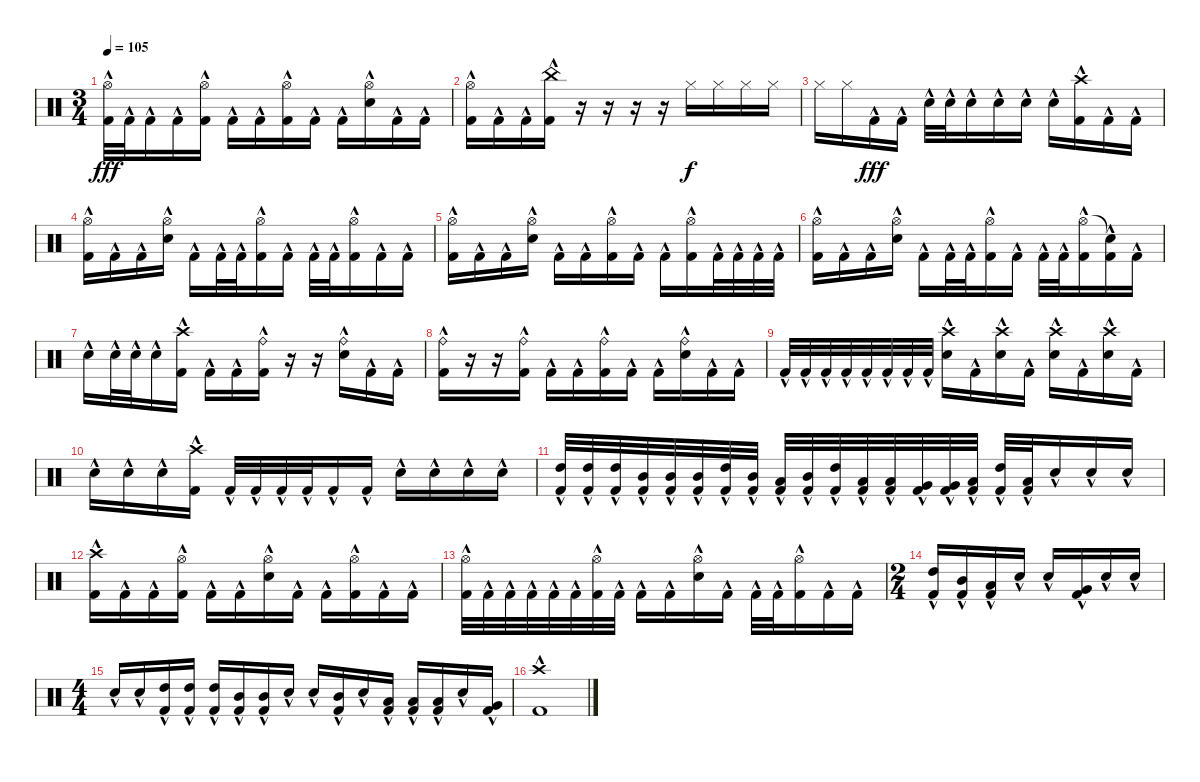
\track "" {instrument percussion}
\staff {score}
\articulation defaults
\ts (3 4)
\tempo 105
\clef neutral
\ks c
("Hi-Hat (open)" "Kick (hit) 2"{hac}).32{dy fff} "Kick (hit) 2"{hac}.32 "Kick (hit) 2"{hac}.16 "Kick (hit) 2"{hac}.16 ("Hi-Hat (open)" "Kick (hit) 2"{hac}).16 "Kick (hit) 2"{hac}.16 "Kick (hit) 2"{hac}.16 ("Hi-Hat (open)" "Kick (hit) 2"{hac}).16 "Kick (hit) 2"{hac}.16 "Kick (hit) 2"{hac}.16 ("Hi-Hat (open)" "Electric Snare (hit)"{hac}).16 "Kick (hit) 2"{hac}.16 "Kick (hit) 2"{hac}.16 |
("Hi-Hat (open)" "Kick (hit) 2"{hac}).16 "Kick (hit) 2"{hac}.16 "Kick (hit) 2"{hac}.16 ("China (hit)" "Kick (hit) 2"{hac}).16 r.16 r.16 r.16 r.16 "Hi-Hat (closed)".16{dy f} "Hi-Hat (closed)".16 "Hi-Hat (closed)".16 "Hi-Hat (closed)".16 |
"Hi-Hat (closed)".16 "Hi-Hat (closed)".16 "Kick (hit) 2"{hac}.16{dy fff} "Kick (hit) 2"{hac}.16 "Electric Snare (hit)"{hac}.32 "Electric Snare (hit)"{hac}.32 "Electric Snare (hit)"{hac}.16 "Electric Snare (hit)"{hac}.16 "Electric Snare (hit)"{hac}.16 "Electric Snare (hit)"{hac}.16 ("Crash high (hit)" "Kick (hit) 2"{hac}).16 "Kick (hit) 2"{hac}.16 "Kick (hit) 2"{hac}.16 |
("Hi-Hat (open)" "Kick (hit) 2"{hac}).16 "Kick (hit) 2"{hac}.16 "Kick (hit) 2"{hac}.16 ("Hi-Hat (open)" "Electric Snare (hit)"{hac}).16 "Kick (hit) 2"{hac}.16 "Kick (hit) 2"{hac}.32 "Kick (hit) 2"{hac}.32 ("Hi-Hat (open)" "Kick (hit) 2"{hac}).16 "Kick (hit) 2"{hac}.16 "Kick (hit) 2"{hac}.32 "Kick (hit) 2"{hac}.32 ("Hi-Hat (open)" "Kick (hit) 2"{hac}).16 "Kick (hit) 2"{hac}.16 "Kick (hit) 2"{hac}.16 |
("Hi-Hat (open)" "Kick (hit) 2"{hac}).16 "Kick (hit) 2"{hac}.16 "Kick (hit) 2"{hac}.16 ("Hi-Hat (open)" "Electric Snare (hit)"{hac}).16 "Kick (hit) 2"{hac}.16 "Kick (hit) 2"{hac}.16 ("Hi-Hat (open)" "Kick (hit) 2"{hac}).16 "Kick (hit) 2"{hac}.16 "Kick (hit) 2"{hac}.16 ("Hi-Hat (open)" "Kick (hit) 2"{hac}).16 "Kick (hit) 2"{hac}.32 "Kick (hit) 2"{hac}.32 "Kick (hit) 2"{hac}.32 "Kick (hit) 2"{hac}.32 |
("Hi-Hat (open)" "Kick (hit) 2"{hac}).16 "Kick (hit) 2"{hac}.16 "Kick (hit) 2"{hac}.16 ("Hi-Hat (open)" "Electric Snare (hit)"{hac}).16 "Kick (hit) 2"{hac}.16 "Kick (hit) 2"{hac}.32 "Kick (hit) 2"{hac}.32 ("Hi-Hat (open)" "Kick (hit) 2"{hac}).16 "Kick (hit) 2"{hac}.16 "Kick (hit) 2"{hac}.32 "Kick (hit) 2"{hac}.32 ("Hi-Hat (open)" "Kick (hit) 2"{hac}).16 ("Snare (hit)"{t} "Kick (hit) 2"{hac}).16 "Kick (hit) 2"{hac}.16 |
"Electric Snare (hit)"{hac}.16 "Electric Snare (hit)"{hac}.32 "Electric Snare (hit)"{hac}.32 "Electric Snare (hit)"{hac}.16 ("Crash high (hit)" "Kick (hit) 2"{hac}).16 "Kick (hit) 2"{hac}.16 "Kick (hit) 2"{hac}.16 ("Ride (bell)" "Kick (hit) 2"{hac}).16 r.16 r.16 ("Ride (bell)" "Electric Snare (hit)"{hac}).16 "Kick (hit) 2"{hac}.16 "Kick (hit) 2"{hac}.16 |
("Kick (hit) 2"{hac} "Ride (bell)").16 r.16 r.16 ("Kick (hit) 2"{hac} "Ride (bell)").16 "Kick (hit) 2"{hac}.16 "Kick (hit) 2"{hac}.16 ("Kick (hit) 2"{hac} "Ride (bell)").16 "Kick (hit) 2"{hac}.16 "Kick (hit) 2"{hac}.16 ("Electric Snare (hit)"{hac} "Ride (bell)").16 "Kick (hit) 2"{hac}.16 "Kick (hit) 2"{hac}.16 |
"Kick (hit) 2"{hac}.32 "Kick (hit) 2"{hac}.32 "Kick (hit) 2"{hac}.32 "Kick (hit) 2"{hac}.32 "Kick (hit) 2"{hac}.32 "Kick (hit) 2"{hac}.32 "Kick (hit) 2"{hac}.32 "Kick (hit) 2"{hac}.32 ("Crash high (hit)" "Electric Snare (hit)"{hac}).16 "Kick (hit) 2"{hac}.16 ("Crash high (hit)" "Electric Snare (hit)"{hac}).16 "Kick (hit) 2"{hac}.16 ("Crash high (hit)" "Electric Snare (hit)"{hac}).16 "Kick (hit) 2"{hac}.16 ("Crash high (hit)" "Electric Snare (hit)"{hac}).16 "Kick (hit) 2"{hac}.16 |
"Electric Snare (hit)"{hac}.16 "Electric Snare (hit)"{hac}.16 "Electric Snare (hit)"{hac}.16 ("Crash high (hit)" "Kick (hit) 2"{hac}).16 "Kick (hit) 2"{hac}.32 "Kick (hit) 2"{hac}.32 "Kick (hit) 2"{hac}.32 "Kick (hit) 2"{hac}.32 "Kick (hit) 2"{hac}.16 "Kick (hit) 2"{hac}.16 "Electric Snare (hit)"{hac}.16 "Electric Snare (hit)"{hac}.16 "Electric Snare (hit)"{hac}.16 "Electric Snare (hit)"{hac}.16 |
("High Tom (hit)" "Kick (hit) 2"{hac}).32 ("High Tom (hit)" "Kick (hit) 2"{hac}).32 ("High Tom (hit)" "Kick (hit) 2"{hac}).32 ("Mid Tom (hit)" "Kick (hit) 2"{hac}).32 ("Mid Tom (hit)" "Kick (hit) 2"{hac}).32 ("Mid Tom (hit)" "Kick (hit) 2"{hac}).32 ("High Tom (hit)" "Kick (hit) 2"{hac}).32 ("Mid Tom (hit)" "Kick (hit) 2"{hac}).32 ("Low Tom (hit)" "Kick (hit) 2"{hac}).32 ("Mid Tom (hit)" "Kick (hit) 2"{hac}).32 ("High Tom (hit)" "Kick (hit) 2"{hac}).32 ("Low Tom (hit)" "Kick (hit) 2"{hac}).32 ("Low Tom (hit)" "Kick (hit) 2"{hac}).32 ("Very Low Tom (hit)" "Kick (hit) 2"{hac}).32 ("Very Low Tom (hit)" "Kick (hit) 2"{hac}).32 ("Low Floor Tom (hit)" "Kick (hit) 2"{hac}).32 ("High Tom (hit)" "Kick (hit) 2"{hac}).32 ("Low Tom (hit)" "Kick (hit) 2"{hac}).32 "Electric Snare (hit)"{hac}.16 "Electric Snare (hit)"{hac}.16 "Electric Snare (hit)"{hac}.16 |
("Crash high (hit)" "Kick (hit) 2"{hac}).16 "Kick (hit) 2"{hac}.16 "Kick (hit) 2"{hac}.16 ("Hi-Hat (open)" "Kick (hit) 2"{hac}).16 "Kick (hit) 2"{hac}.16 "Kick (hit) 2"{hac}.16 ("Hi-Hat (open)" "Electric Snare (hit)"{hac}).16 "Kick (hit) 2"{hac}.16 "Kick (hit) 2"{hac}.16 ("Hi-Hat (open)" "Kick (hit) 2"{hac}).16 "Kick (hit) 2"{hac}.16 "Kick (hit) 2"{hac}.16 |
("Hi-Hat (open)" "Kick (hit) 2"{hac}).32 "Kick (hit) 2"{hac}.32 "Kick (hit) 2"{hac}.32 "Kick (hit) 2"{hac}.32 "Kick (hit) 2"{hac}.32 "Kick (hit) 2"{hac}.32 ("Hi-Hat (open)" "Kick (hit) 2"{hac}).32 "Kick (hit) 2"{hac}.32 "Kick (hit) 2"{hac}.16 "Kick (hit) 2"{hac}.16 ("Hi-Hat (open)" "Electric Snare (hit)"{hac}).16 "Kick (hit) 2"{hac}.16 "Kick (hit) 2"{hac}.32 "Kick (hit) 2"{hac}.32 ("Hi-Hat (open)" "Kick (hit) 2"{hac}).16 "Kick (hit) 2"{hac}.16 "Kick (hit) 2"{hac}.16 |
\ts (2 4)
("High Tom (hit)" "Kick (hit) 2"{hac}).16 ("Mid Tom (hit)" "Kick (hit) 2"{hac}).16 ("Low Tom (hit)" "Kick (hit) 2"{hac}).16 "Electric Snare (hit)"{hac}.16 "Electric Snare (hit)"{hac}.16 ("Very Low Tom (hit)" "Kick (hit) 2"{hac}).16 "Electric Snare (hit)"{hac}.16 "Electric Snare (hit)"{hac}.16 |
\ts (4 4)
"Electric Snare (hit)"{hac}.16 "Electric Snare (hit)"{hac}.16 ("Kick (hit) 2"{hac} "High Tom (hit)").16 ("Kick (hit) 2"{hac} "High Tom (hit)").16 ("Kick (hit) 2"{hac} "High Tom (hit)").16 ("Kick (hit) 2"{hac} "Mid Tom (hit)").16 ("Kick (hit) 2"{hac} "Mid Tom (hit)").16 "Electric Snare (hit)"{hac}.16 "Electric Snare (hit)"{hac}.16 ("Kick (hit) 2"{hac} "Mid Tom (hit)").16 "Electric Snare (hit)"{hac}.16 ("Kick (hit) 2"{hac} "Low Tom (hit)").16 ("Kick (hit) 2"{hac} "Low Tom (hit)").16 ("Kick (hit) 2"{hac} "Low Tom (hit)").16 "Electric Snare (hit)"{hac}.16 ("Kick (hit) 2"{hac} "Very Low Tom (hit)").16 |
("Crash high (hit)" "Kick (hit) 2"{hac}).1
